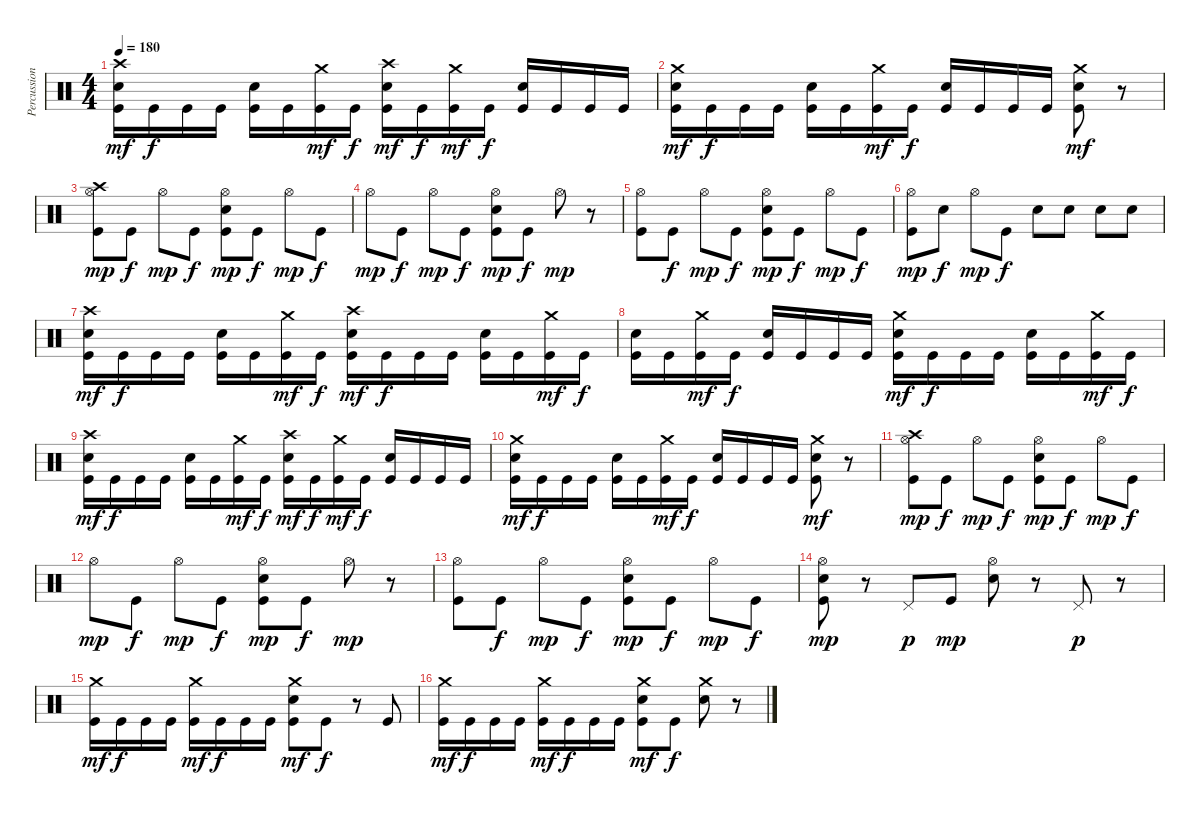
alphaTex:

\track ("Percussion" "Percussion") {instrument percussion}
\staff {score}
\articulation defaults
\ts (4 4)
\tempo 180
\clef neutral
\ks c
("Crash high (hit)" "Snare (hit) 2" "Kick (hit)").16{dy mf} "Kick (hit)".16{dy f} "Kick (hit)".16 "Kick (hit)".16 ("Snare (hit) 2" "Kick (hit)").16 "Kick (hit)".16 ("Crash medium (hit)" "Kick (hit)").16{dy mf} "Kick (hit)".16{dy f} ("Crash high (hit)" "Snare (hit) 2" "Kick (hit)").16{dy mf} "Kick (hit)".16{dy f} ("Crash medium (hit)" "Kick (hit)").16{dy mf} "Kick (hit)".16{dy f} ("Snare (hit) 2" "Kick (hit)").16 "Kick (hit)".16 "Kick (hit)".16 "Kick (hit)".16 |
("Crash medium (hit)" "Snare (hit) 2" "Kick (hit)").16{dy mf} "Kick (hit)".16{dy f} "Kick (hit)".16 "Kick (hit)".16 ("Snare (hit) 2" "Kick (hit)").16 "Kick (hit)".16 ("Crash medium (hit)" "Kick (hit)").16{dy mf} "Kick (hit)".16{dy f} ("Snare (hit) 2" "Kick (hit)").16 "Kick (hit)".16 "Kick (hit)".16 "Kick (hit)".16 ("Crash medium (hit)" "Snare (hit) 2" "Kick (hit)").8{dy mf} r.8 |
("Crash high (hit)" "Hi-Hat (open)" "Kick (hit)").8{dy mp} "Kick (hit)".8{dy f} "Hi-Hat (open)".8{dy mp} "Kick (hit)".8{dy f} ("Hi-Hat (open)" "Snare (hit) 2" "Kick (hit)").8{dy mp} "Kick (hit)".8{dy f} "Hi-Hat (open)".8{dy mp} "Kick (hit)".8{dy f} |
"Hi-Hat (open)".8{dy mp} "Kick (hit)".8{dy f} "Hi-Hat (open)".8{dy mp} "Kick (hit)".8{dy f} ("Hi-Hat (open)" "Snare (hit) 2" "Kick (hit)").8{dy mp} "Kick (hit)".8{dy f} "Hi-Hat (open)".8{dy mp} r.8 |
("Hi-Hat (open)" "Kick (hit)").8 "Kick (hit)".8{dy f} "Hi-Hat (open)".8{dy mp} "Kick (hit)".8{dy f} ("Hi-Hat (open)" "Snare (hit) 2" "Kick (hit)").8{dy mp} "Kick (hit)".8{dy f} "Hi-Hat (open)".8{dy mp} "Kick (hit)".8{dy f} |
("Hi-Hat (open)" "Kick (hit)").8{dy mp} "Snare (hit) 2".8{dy f} "Hi-Hat (open)".8{dy mp} "Kick (hit)".8{dy f} "Snare (hit) 2".8 "Snare (hit) 2".8 "Snare (hit) 2".8 "Snare (hit) 2".8 |
("Crash high (hit)" "Snare (hit) 2" "Kick (hit)").16{dy mf} "Kick (hit)".16{dy f} "Kick (hit)".16 "Kick (hit)".16 ("Snare (hit) 2" "Kick (hit)").16 "Kick (hit)".16 ("Crash medium (hit)" "Kick (hit)").16{dy mf} "Kick (hit)".16{dy f} ("Crash high (hit)" "Snare (hit) 2" "Kick (hit)").16{dy mf} "Kick (hit)".16{dy f} "Kick (hit)".16 "Kick (hit)".16 ("Snare (hit) 2" "Kick (hit)").16 "Kick (hit)".16 ("Crash medium (hit)" "Kick (hit)").16{dy mf} "Kick (hit)".16{dy f} |
("Snare (hit) 2" "Kick (hit)").16 "Kick (hit)".16 ("Crash medium (hit)" "Kick (hit)").16{dy mf} "Kick (hit)".16{dy f} ("Snare (hit) 2" "Kick (hit)").16 "Kick (hit)".16 "Kick (hit)".16 "Kick (hit)".16 ("Crash medium (hit)" "Snare (hit) 2" "Kick (hit)").16{dy mf} "Kick (hit)".16{dy f} "Kick (hit)".16 "Kick (hit)".16 ("Snare (hit) 2" "Kick (hit)").16 "Kick (hit)".16 ("Crash medium (hit)" "Kick (hit)").16{dy mf} "Kick (hit)".16{dy f} |
("Crash high (hit)" "Snare (hit) 2" "Kick (hit)").16{dy mf} "Kick (hit)".16{dy f} "Kick (hit)".16 "Kick (hit)".16 ("Snare (hit) 2" "Kick (hit)").16 "Kick (hit)".16 ("Crash medium (hit)" "Kick (hit)").16{dy mf} "Kick (hit)".16{dy f} ("Crash high (hit)" "Snare (hit) 2" "Kick (hit)").16{dy mf} "Kick (hit)".16{dy f} ("Crash medium (hit)" "Kick (hit)").16{dy mf} "Kick (hit)".16{dy f} ("Snare (hit) 2" "Kick (hit)").16 "Kick (hit)".16 "Kick (hit)".16 "Kick (hit)".16 |
("Crash medium (hit)" "Snare (hit) 2" "Kick (hit)").16{dy mf} "Kick (hit)".16{dy f} "Kick (hit)".16 "Kick (hit)".16 ("Snare (hit) 2" "Kick (hit)").16 "Kick (hit)".16 ("Crash medium (hit)" "Kick (hit)").16{dy mf} "Kick (hit)".16{dy f} ("Snare (hit) 2" "Kick (hit)").16 "Kick (hit)".16 "Kick (hit)".16 "Kick (hit)".16 ("Crash medium (hit)" "Snare (hit) 2" "Kick (hit)").8{dy mf} r.8 |
("Crash high (hit)" "Hi-Hat (open)" "Kick (hit)").8{dy mp} "Kick (hit)".8{dy f} "Hi-Hat (open)".8{dy mp} "Kick (hit)".8{dy f} ("Hi-Hat (open)" "Snare (hit) 2" "Kick (hit)").8{dy mp} "Kick (hit)".8{dy f} "Hi-Hat (open)".8{dy mp} "Kick (hit)".8{dy f} |
"Hi-Hat (open)".8{dy mp} "Kick (hit)".8{dy f} "Hi-Hat (open)".8{dy mp} "Kick (hit)".8{dy f} ("Hi-Hat (open)" "Snare (hit) 2" "Kick (hit)").8{dy mp} "Kick (hit)".8{dy f} "Hi-Hat (open)".8{dy mp} r.8 |
("Hi-Hat (open)" "Kick (hit)").8 "Kick (hit)".8{dy f} "Hi-Hat (open)".8{dy mp} "Kick (hit)".8{dy f} ("Hi-Hat (open)" "Snare (hit) 2" "Kick (hit)").8{dy mp} "Kick (hit)".8{dy f} "Hi-Hat (open)".8{dy mp} "Kick (hit)".8{dy f} |
("Hi-Hat (open)" "Snare (hit) 2" "Kick (hit)").8{dy mp} r.8 "Pedal Hi-Hat (hit)".8{dy p} "Kick (hit)".8{dy mp} ("Hi-Hat (open)" "Snare (hit) 2").8 r.8 "Pedal Hi-Hat (hit)".8{dy p} r.8 |
("Crash medium (hit)" "Kick (hit)").16{dy mf} "Kick (hit)".16{dy f} "Kick (hit)".16 "Kick (hit)".16 ("Crash medium (hit)" "Kick (hit)").16{dy mf} "Kick (hit)".16{dy f} "Kick (hit)".16 "Kick (hit)".16 ("Crash medium (hit)" "Snare (hit) 2" "Kick (hit)").8{dy mf} "Kick (hit)".8{dy f} r.8 "Kick (hit)".8 |
("Crash medium (hit)" "Kick (hit)").16{dy mf} "Kick (hit)".16{dy f} "Kick (hit)".16 "Kick (hit)".16 ("Crash medium (hit)" "Kick (hit)").16{dy mf} "Kick (hit)".16{dy f} "Kick (hit)".16 "Kick (hit)".16 ("Crash medium (hit)" "Snare (hit) 2" "Kick (hit)").8{dy mf} "Kick (hit)".8{dy f} ("Crash medium (hit)" "Snare (hit) 2").8 r.8
